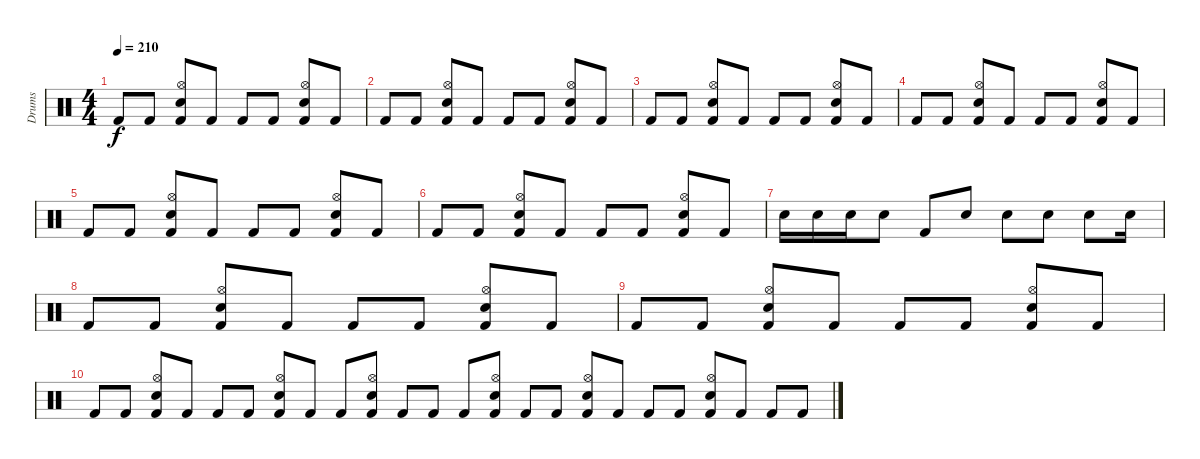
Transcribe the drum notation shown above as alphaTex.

\track ("Drums" "Drums") {instrument percussion}
\staff {score}
\articulation defaults
\ts (4 4)
\tempo 210
\clef neutral
\ks c "Kick (hit) 2".8{dy f} "Kick (hit) 2".8
("Hi-Hat (open)" "Electric Snare (hit)" "Kick (hit) 2").8 "Kick (hit) 2".8 "Kick (hit) 2".8 "Kick (hit) 2".8 ("Hi-Hat (open)" "Electric Snare (hit)" "Kick (hit) 2").8 "Kick (hit) 2".8 |
"Kick (hit) 2".8 "Kick (hit) 2".8 ("Hi-Hat (open)" "Electric Snare (hit)" "Kick (hit) 2").8 "Kick (hit) 2".8 "Kick (hit) 2".8 "Kick (hit) 2".8 ("Hi-Hat (open)" "Electric Snare (hit)" "Kick (hit) 2").8 "Kick (hit) 2".8 |
"Kick (hit) 2".8 "Kick (hit) 2".8 ("Hi-Hat (open)" "Electric Snare (hit)" "Kick (hit) 2").8 "Kick (hit) 2".8 "Kick (hit) 2".8 "Kick (hit) 2".8 ("Hi-Hat (open)" "Electric Snare (hit)" "Kick (hit) 2").8 "Kick (hit) 2".8 |
"Kick (hit) 2".8 "Kick (hit) 2".8 ("Hi-Hat (open)" "Electric Snare (hit)" "Kick (hit) 2").8 "Kick (hit) 2".8 "Kick (hit) 2".8 "Kick (hit) 2".8 ("Hi-Hat (open)" "Electric Snare (hit)" "Kick (hit) 2").8 "Kick (hit) 2".8 |
"Kick (hit) 2".8 "Kick (hit) 2".8 ("Hi-Hat (open)" "Electric Snare (hit)" "Kick (hit) 2").8 "Kick (hit) 2".8 "Kick (hit) 2".8 "Kick (hit) 2".8 ("Hi-Hat (open)" "Electric Snare (hit)" "Kick (hit) 2").8 "Kick (hit) 2".8 |
"Kick (hit) 2".8 "Kick (hit) 2".8 ("Hi-Hat (open)" "Electric Snare (hit)" "Kick (hit) 2").8 "Kick (hit) 2".8 "Kick (hit) 2".8 "Kick (hit) 2".8 ("Hi-Hat (open)" "Electric Snare (hit)" "Kick (hit) 2").8 "Kick (hit) 2".8 |
"Snare (hit) 2".16 "Snare (hit) 2".16 "Snare (hit) 2".16 "Snare (hit) 2".8 "Kick (hit) 2".8 "Snare (hit) 2".8 "Snare (hit) 2".8 "Snare (hit) 2".8 "Snare (hit) 2".8 "Snare (hit) 2".16 |
"Kick (hit) 2".8 "Kick (hit) 2".8 ("Hi-Hat (open)" "Electric Snare (hit)" "Kick (hit) 2").8 "Kick (hit) 2".8 "Kick (hit) 2".8 "Kick (hit) 2".8 ("Hi-Hat (open)" "Electric Snare (hit)" "Kick (hit) 2").8 "Kick (hit) 2".8 |
"Kick (hit) 2".8 "Kick (hit) 2".8 ("Hi-Hat (open)" "Electric Snare (hit)" "Kick (hit) 2").8 "Kick (hit) 2".8 "Kick (hit) 2".8 "Kick (hit) 2".8 ("Hi-Hat (open)" "Electric Snare (hit)" "Kick (hit) 2").8 "Kick (hit) 2".8 |
"Kick (hit) 2".8 "Kick (hit) 2".8 ("Hi-Hat (open)" "Electric Snare (hit)" "Kick (hit) 2").8 "Kick (hit) 2".8 "Kick (hit) 2".8 "Kick (hit) 2".8 ("Hi-Hat (open)" "Electric Snare (hit)" "Kick (hit) 2").8 "Kick (hit) 2".8 "Kick (hit) 2".8 ("Hi-Hat (open)" "Electric Snare (hit)" "Kick (hit) 2").8 "Kick (hit) 2".8 "Kick (hit) 2".8 "Kick (hit) 2".8 ("Hi-Hat (open)" "Electric Snare (hit)" "Kick (hit) 2").8 "Kick (hit) 2".8 "Kick (hit) 2".8 ("Hi-Hat (open)" "Electric Snare (hit)" "Kick (hit) 2").8 "Kick (hit) 2".8 "Kick (hit) 2".8 "Kick (hit) 2".8 ("Hi-Hat (open)" "Electric Snare (hit)" "Kick (hit) 2").8 "Kick (hit) 2".8 "Kick (hit) 2".8 "Kick (hit) 2".8
